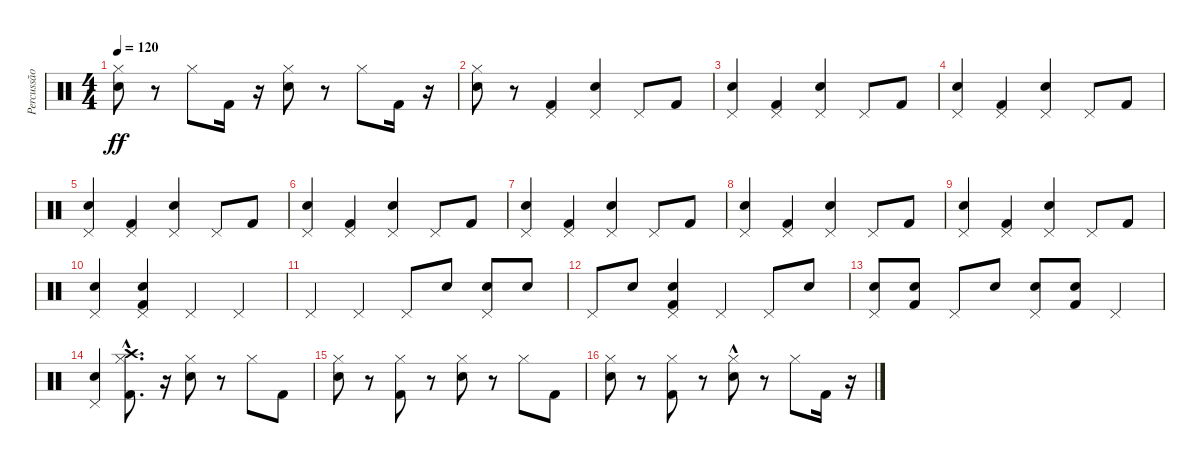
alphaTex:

\track ("Percussão" "Percussão") {instrument percussion}
\staff {score}
\articulation defaults
\ts (4 4)
\tempo 120
\clef neutral
\ks c
("Hi-Hat (closed)" "Snare (hit) 2").8{dy ff} r.8 "Hi-Hat (closed)".8 "Kick (hit) 2".16 r.16 ("Hi-Hat (closed)" "Snare (hit) 2").8 r.8 "Hi-Hat (closed)".8 "Kick (hit) 2".16 r.16 |
("Hi-Hat (closed)" "Snare (hit) 2").8 r.8 ("Kick (hit) 2" "Pedal Hi-Hat (hit)").4 ("Snare (hit) 2" "Pedal Hi-Hat (hit)").4 "Pedal Hi-Hat (hit)".8 "Kick (hit) 2".8 |
("Snare (hit) 2" "Pedal Hi-Hat (hit)").4 ("Kick (hit) 2" "Pedal Hi-Hat (hit)").4 ("Snare (hit) 2" "Pedal Hi-Hat (hit)").4 "Pedal Hi-Hat (hit)".8 "Kick (hit) 2".8 |
("Snare (hit) 2" "Pedal Hi-Hat (hit)").4 ("Kick (hit) 2" "Pedal Hi-Hat (hit)").4 ("Snare (hit) 2" "Pedal Hi-Hat (hit)").4 "Pedal Hi-Hat (hit)".8 "Kick (hit) 2".8 |
("Snare (hit) 2" "Pedal Hi-Hat (hit)").4 ("Kick (hit) 2" "Pedal Hi-Hat (hit)").4 ("Snare (hit) 2" "Pedal Hi-Hat (hit)").4 "Pedal Hi-Hat (hit)".8 "Kick (hit) 2".8 |
("Snare (hit) 2" "Pedal Hi-Hat (hit)").4 ("Kick (hit) 2" "Pedal Hi-Hat (hit)").4 ("Snare (hit) 2" "Pedal Hi-Hat (hit)").4 "Pedal Hi-Hat (hit)".8 "Kick (hit) 2".8 |
("Snare (hit) 2" "Pedal Hi-Hat (hit)").4 ("Kick (hit) 2" "Pedal Hi-Hat (hit)").4 ("Snare (hit) 2" "Pedal Hi-Hat (hit)").4 "Pedal Hi-Hat (hit)".8 "Kick (hit) 2".8 |
("Snare (hit) 2" "Pedal Hi-Hat (hit)").4 ("Kick (hit) 2" "Pedal Hi-Hat (hit)").4 ("Snare (hit) 2" "Pedal Hi-Hat (hit)").4 "Pedal Hi-Hat (hit)".8 "Kick (hit) 2".8 |
("Snare (hit) 2" "Pedal Hi-Hat (hit)").4 ("Kick (hit) 2" "Pedal Hi-Hat (hit)").4 ("Snare (hit) 2" "Pedal Hi-Hat (hit)").4 "Pedal Hi-Hat (hit)".8 "Kick (hit) 2".8 |
("Snare (hit) 2" "Pedal Hi-Hat (hit)").4 ("Snare (hit) 2" "Kick (hit) 2" "Pedal Hi-Hat (hit)").4 "Pedal Hi-Hat (hit)".4 "Pedal Hi-Hat (hit)".4 |
"Pedal Hi-Hat (hit)".4 "Pedal Hi-Hat (hit)".4 "Pedal Hi-Hat (hit)".8 "Snare (hit) 2".8 ("Snare (hit) 2" "Pedal Hi-Hat (hit)").8 "Snare (hit) 2".8 |
"Pedal Hi-Hat (hit)".8 "Snare (hit) 2".8 ("Snare (hit) 2" "Kick (hit) 2" "Pedal Hi-Hat (hit)").4 "Pedal Hi-Hat (hit)".4 "Pedal Hi-Hat (hit)".8 "Snare (hit) 2".8 |
("Snare (hit) 2" "Pedal Hi-Hat (hit)").8 ("Snare (hit) 2" "Kick (hit) 2").8 "Pedal Hi-Hat (hit)".8 "Snare (hit) 2".8 ("Snare (hit) 2" "Pedal Hi-Hat (hit)").8 ("Snare (hit) 2" "Kick (hit) 2").8 "Pedal Hi-Hat (hit)".4 |
("Snare (hit) 2" "Pedal Hi-Hat (hit)").4 ("Kick (hit) 2" "Hi-Hat (closed)" "Crash high (hit)"{hac}).8{d} r.16 ("Snare (hit) 2" "Hi-Hat (closed)").8 r.8 "Hi-Hat (closed)".8 "Kick (hit) 2".8 |
("Snare (hit) 2" "Hi-Hat (closed)").8 r.8 ("Kick (hit) 2" "Hi-Hat (closed)").8 r.8 ("Snare (hit) 2" "Hi-Hat (closed)").8 r.8 "Hi-Hat (closed)".8 "Kick (hit) 2".8 |
("Snare (hit) 2" "Hi-Hat (closed)").8 r.8 ("Kick (hit) 2" "Hi-Hat (closed)").8 r.8 ("Hi-Hat (closed)" "Snare (hit) 2"{hac}).8 r.8 "Hi-Hat (closed)".8 "Kick (hit) 2".16 r.16
